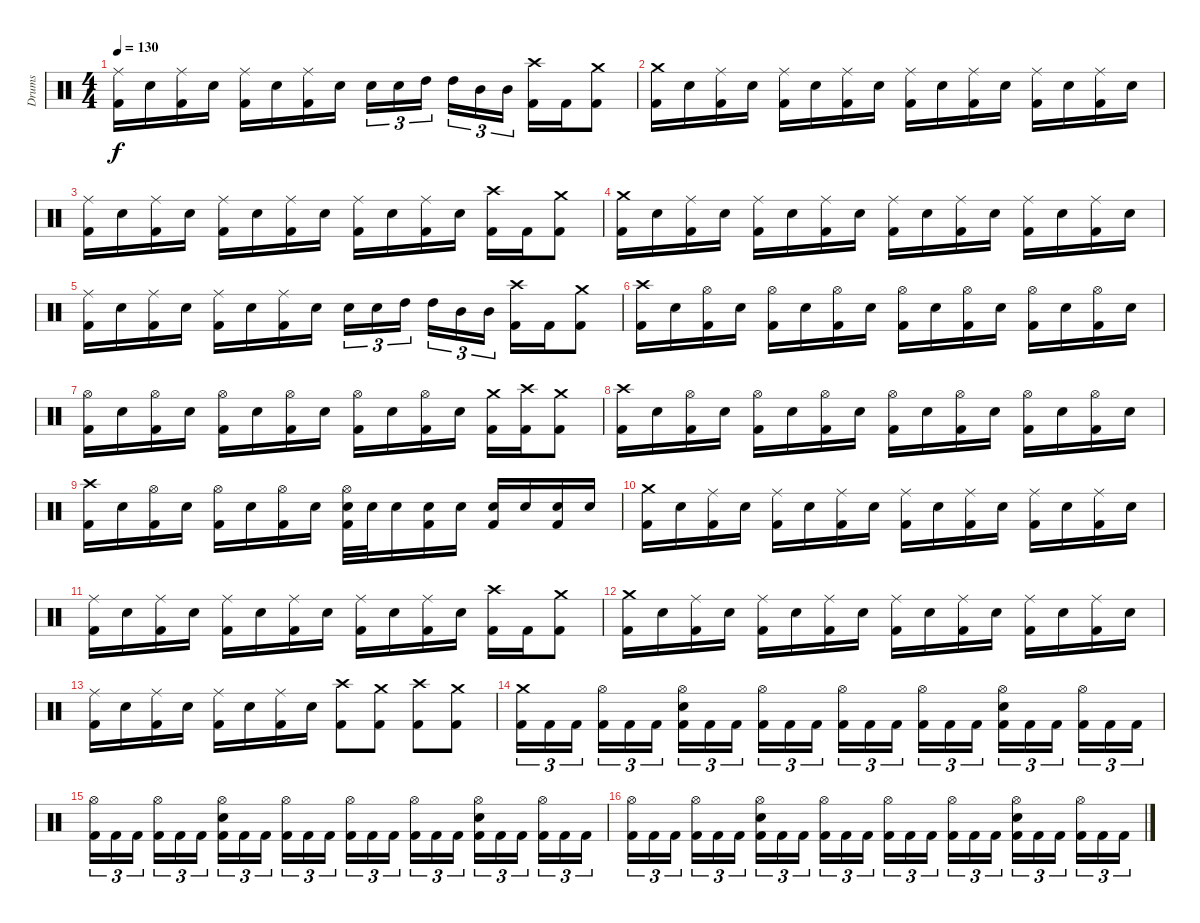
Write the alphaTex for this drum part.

\track ("Drums" "Drums") {instrument percussion}
\staff {score}
\articulation defaults
\ts (4 4)
\tempo 130
\clef neutral
\ks c
("Kick (hit) 2" "Ride (middle)").16{dy f} "Electric Snare (hit)".16 ("Kick (hit) 2" "Ride (middle)").16 "Electric Snare (hit)".16 ("Kick (hit) 2" "Ride (middle)").16 "Electric Snare (hit)".16 ("Kick (hit) 2" "Ride (middle)").16 "Electric Snare (hit)".16 "Electric Snare (hit)".16{tu (3 2)} "Electric Snare (hit)".16{tu (3 2)} "High Tom (hit)".16{tu (3 2)} "High Tom (hit)".16{tu (3 2)} "Mid Tom (hit)".16{tu (3 2)} "Mid Tom (hit)".16{tu (3 2)} ("Kick (hit) 2" "Crash high (hit)").16 "Kick (hit) 2".16 ("Kick (hit) 2" "Crash medium (hit)").8 |
("Kick (hit) 2" "Crash medium (hit)").16 "Electric Snare (hit)".16 ("Kick (hit) 2" "Ride (middle)").16 "Electric Snare (hit)".16 ("Kick (hit) 2" "Ride (middle)").16 "Electric Snare (hit)".16 ("Kick (hit) 2" "Ride (middle)").16 "Electric Snare (hit)".16 ("Kick (hit) 2" "Ride (middle)").16 "Electric Snare (hit)".16 ("Kick (hit) 2" "Ride (middle)").16 "Electric Snare (hit)".16 ("Kick (hit) 2" "Ride (middle)").16 "Electric Snare (hit)".16 ("Kick (hit) 2" "Ride (middle)").16 "Electric Snare (hit)".16 |
("Kick (hit) 2" "Ride (middle)").16 "Electric Snare (hit)".16 ("Kick (hit) 2" "Ride (middle)").16 "Electric Snare (hit)".16 ("Kick (hit) 2" "Ride (middle)").16 "Electric Snare (hit)".16 ("Kick (hit) 2" "Ride (middle)").16 "Electric Snare (hit)".16 ("Kick (hit) 2" "Ride (middle)").16 "Electric Snare (hit)".16 ("Kick (hit) 2" "Ride (middle)").16 "Electric Snare (hit)".16 ("Kick (hit) 2" "Crash high (hit)").16 "Kick (hit) 2".16 ("Kick (hit) 2" "Crash medium (hit)").8 |
("Kick (hit) 2" "Crash medium (hit)").16 "Electric Snare (hit)".16 ("Kick (hit) 2" "Ride (middle)").16 "Electric Snare (hit)".16 ("Kick (hit) 2" "Ride (middle)").16 "Electric Snare (hit)".16 ("Kick (hit) 2" "Ride (middle)").16 "Electric Snare (hit)".16 ("Kick (hit) 2" "Ride (middle)").16 "Electric Snare (hit)".16 ("Kick (hit) 2" "Ride (middle)").16 "Electric Snare (hit)".16 ("Kick (hit) 2" "Ride (middle)").16 "Electric Snare (hit)".16 ("Kick (hit) 2" "Ride (middle)").16 "Electric Snare (hit)".16 |
("Kick (hit) 2" "Ride (middle)").16 "Electric Snare (hit)".16 ("Kick (hit) 2" "Ride (middle)").16 "Electric Snare (hit)".16 ("Kick (hit) 2" "Ride (middle)").16 "Electric Snare (hit)".16 ("Kick (hit) 2" "Ride (middle)").16 "Electric Snare (hit)".16 "Electric Snare (hit)".16{tu (3 2)} "Electric Snare (hit)".16{tu (3 2)} "High Tom (hit)".16{tu (3 2)} "High Tom (hit)".16{tu (3 2)} "Mid Tom (hit)".16{tu (3 2)} "Mid Tom (hit)".16{tu (3 2)} ("Kick (hit) 2" "Crash high (hit)").16 "Kick (hit) 2".16 ("Kick (hit) 2" "Crash medium (hit)").8 |
("Kick (hit) 2" "Crash high (hit)").16 "Electric Snare (hit)".16 ("Kick (hit) 2" "Hi-Hat (open)").16 "Electric Snare (hit)".16 ("Kick (hit) 2" "Hi-Hat (open)").16 "Electric Snare (hit)".16 ("Kick (hit) 2" "Hi-Hat (open)").16 "Electric Snare (hit)".16 ("Kick (hit) 2" "Hi-Hat (open)").16 "Electric Snare (hit)".16 ("Kick (hit) 2" "Hi-Hat (open)").16 "Electric Snare (hit)".16 ("Kick (hit) 2" "Hi-Hat (open)").16 "Electric Snare (hit)".16 ("Kick (hit) 2" "Hi-Hat (open)").16 "Electric Snare (hit)".16 |
("Kick (hit) 2" "Hi-Hat (open)").16 "Electric Snare (hit)".16 ("Kick (hit) 2" "Hi-Hat (open)").16 "Electric Snare (hit)".16 ("Kick (hit) 2" "Hi-Hat (open)").16 "Electric Snare (hit)".16 ("Kick (hit) 2" "Hi-Hat (open)").16 "Electric Snare (hit)".16 ("Kick (hit) 2" "Hi-Hat (open)").16 "Electric Snare (hit)".16 ("Kick (hit) 2" "Hi-Hat (open)").16 "Electric Snare (hit)".16 ("Kick (hit) 2" "Crash medium (hit)").16 ("Kick (hit) 2" "Crash high (hit)").16 ("Kick (hit) 2" "Crash medium (hit)").8 |
("Kick (hit) 2" "Crash high (hit)").16 "Electric Snare (hit)".16 ("Kick (hit) 2" "Hi-Hat (open)").16 "Electric Snare (hit)".16 ("Kick (hit) 2" "Hi-Hat (open)").16 "Electric Snare (hit)".16 ("Kick (hit) 2" "Hi-Hat (open)").16 "Electric Snare (hit)".16 ("Kick (hit) 2" "Hi-Hat (open)").16 "Electric Snare (hit)".16 ("Kick (hit) 2" "Hi-Hat (open)").16 "Electric Snare (hit)".16 ("Kick (hit) 2" "Hi-Hat (open)").16 "Electric Snare (hit)".16 ("Kick (hit) 2" "Hi-Hat (open)").16 "Electric Snare (hit)".16 |
("Kick (hit) 2" "Crash high (hit)").16 "Electric Snare (hit)".16 ("Kick (hit) 2" "Hi-Hat (open)").16 "Electric Snare (hit)".16 ("Kick (hit) 2" "Hi-Hat (open)").16 "Electric Snare (hit)".16 ("Kick (hit) 2" "Hi-Hat (open)").16 "Electric Snare (hit)".16 ("Kick (hit) 2" "Electric Snare (hit)" "Hi-Hat (open)").32 "Electric Snare (hit)".32 "Electric Snare (hit)".16 ("Kick (hit) 2" "Electric Snare (hit)").16 "Electric Snare (hit)".16 ("Kick (hit) 2" "Electric Snare (hit)").16 "Electric Snare (hit)".16 ("Kick (hit) 2" "Electric Snare (hit)").16 "Electric Snare (hit)".16 |
("Kick (hit) 2" "Crash medium (hit)").16 "Electric Snare (hit)".16 ("Kick (hit) 2" "Ride (middle)").16 "Electric Snare (hit)".16 ("Kick (hit) 2" "Ride (middle)").16 "Electric Snare (hit)".16 ("Kick (hit) 2" "Ride (middle)").16 "Electric Snare (hit)".16 ("Kick (hit) 2" "Ride (middle)").16 "Electric Snare (hit)".16 ("Kick (hit) 2" "Ride (middle)").16 "Electric Snare (hit)".16 ("Kick (hit) 2" "Ride (middle)").16 "Electric Snare (hit)".16 ("Kick (hit) 2" "Ride (middle)").16 "Electric Snare (hit)".16 |
("Kick (hit) 2" "Ride (middle)").16 "Electric Snare (hit)".16 ("Kick (hit) 2" "Ride (middle)").16 "Electric Snare (hit)".16 ("Kick (hit) 2" "Ride (middle)").16 "Electric Snare (hit)".16 ("Kick (hit) 2" "Ride (middle)").16 "Electric Snare (hit)".16 ("Kick (hit) 2" "Ride (middle)").16 "Electric Snare (hit)".16 ("Kick (hit) 2" "Ride (middle)").16 "Electric Snare (hit)".16 ("Kick (hit) 2" "Crash high (hit)").16 "Kick (hit) 2".16 ("Kick (hit) 2" "Crash medium (hit)").8 |
("Kick (hit) 2" "Crash medium (hit)").16 "Electric Snare (hit)".16 ("Kick (hit) 2" "Ride (middle)").16 "Electric Snare (hit)".16 ("Kick (hit) 2" "Ride (middle)").16 "Electric Snare (hit)".16 ("Kick (hit) 2" "Ride (middle)").16 "Electric Snare (hit)".16 ("Kick (hit) 2" "Ride (middle)").16 "Electric Snare (hit)".16 ("Kick (hit) 2" "Ride (middle)").16 "Electric Snare (hit)".16 ("Kick (hit) 2" "Ride (middle)").16 "Electric Snare (hit)".16 ("Kick (hit) 2" "Ride (middle)").16 "Electric Snare (hit)".16 |
("Kick (hit) 2" "Ride (middle)").16 "Electric Snare (hit)".16 ("Kick (hit) 2" "Ride (middle)").16 "Electric Snare (hit)".16 ("Kick (hit) 2" "Ride (middle)").16 "Electric Snare (hit)".16 ("Kick (hit) 2" "Ride (middle)").16 "Electric Snare (hit)".16 ("Kick (hit) 2" "Crash high (hit)").8 ("Kick (hit) 2" "Crash medium (hit)").8 ("Kick (hit) 2" "Crash high (hit)").8 ("Kick (hit) 2" "Crash medium (hit)").8 |
("Kick (hit) 2" "Crash medium (hit)").16{tu (3 2)} "Kick (hit) 2".16{tu (3 2)} "Kick (hit) 2".16{tu (3 2)} ("Kick (hit) 2" "Hi-Hat (open)").16{tu (3 2)} "Kick (hit) 2".16{tu (3 2)} "Kick (hit) 2".16{tu (3 2)} ("Kick (hit) 2" "Electric Snare (hit)" "Hi-Hat (open)").16{tu (3 2)} "Kick (hit) 2".16{tu (3 2)} "Kick (hit) 2".16{tu (3 2)} ("Kick (hit) 2" "Hi-Hat (open)").16{tu (3 2)} "Kick (hit) 2".16{tu (3 2)} "Kick (hit) 2".16{tu (3 2)} ("Kick (hit) 2" "Hi-Hat (open)").16{tu (3 2)} "Kick (hit) 2".16{tu (3 2)} "Kick (hit) 2".16{tu (3 2)} ("Kick (hit) 2" "Hi-Hat (open)").16{tu (3 2)} "Kick (hit) 2".16{tu (3 2)} "Kick (hit) 2".16{tu (3 2)} ("Kick (hit) 2" "Electric Snare (hit)" "Hi-Hat (open)").16{tu (3 2)} "Kick (hit) 2".16{tu (3 2)} "Kick (hit) 2".16{tu (3 2)} ("Kick (hit) 2" "Hi-Hat (open)").16{tu (3 2)} "Kick (hit) 2".16{tu (3 2)} "Kick (hit) 2".16{tu (3 2)} |
("Kick (hit) 2" "Hi-Hat (open)").16{tu (3 2)} "Kick (hit) 2".16{tu (3 2)} "Kick (hit) 2".16{tu (3 2)} ("Kick (hit) 2" "Hi-Hat (open)").16{tu (3 2)} "Kick (hit) 2".16{tu (3 2)} "Kick (hit) 2".16{tu (3 2)} ("Kick (hit) 2" "Electric Snare (hit)" "Hi-Hat (open)").16{tu (3 2)} "Kick (hit) 2".16{tu (3 2)} "Kick (hit) 2".16{tu (3 2)} ("Kick (hit) 2" "Hi-Hat (open)").16{tu (3 2)} "Kick (hit) 2".16{tu (3 2)} "Kick (hit) 2".16{tu (3 2)} ("Kick (hit) 2" "Hi-Hat (open)").16{tu (3 2)} "Kick (hit) 2".16{tu (3 2)} "Kick (hit) 2".16{tu (3 2)} ("Kick (hit) 2" "Hi-Hat (open)").16{tu (3 2)} "Kick (hit) 2".16{tu (3 2)} "Kick (hit) 2".16{tu (3 2)} ("Kick (hit) 2" "Electric Snare (hit)" "Hi-Hat (open)").16{tu (3 2)} "Kick (hit) 2".16{tu (3 2)} "Kick (hit) 2".16{tu (3 2)} ("Kick (hit) 2" "Hi-Hat (open)").16{tu (3 2)} "Kick (hit) 2".16{tu (3 2)} "Kick (hit) 2".16{tu (3 2)} |
("Kick (hit) 2" "Hi-Hat (open)").16{tu (3 2)} "Kick (hit) 2".16{tu (3 2)} "Kick (hit) 2".16{tu (3 2)} ("Kick (hit) 2" "Hi-Hat (open)").16{tu (3 2)} "Kick (hit) 2".16{tu (3 2)} "Kick (hit) 2".16{tu (3 2)} ("Kick (hit) 2" "Electric Snare (hit)" "Hi-Hat (open)").16{tu (3 2)} "Kick (hit) 2".16{tu (3 2)} "Kick (hit) 2".16{tu (3 2)} ("Kick (hit) 2" "Hi-Hat (open)").16{tu (3 2)} "Kick (hit) 2".16{tu (3 2)} "Kick (hit) 2".16{tu (3 2)} ("Kick (hit) 2" "Hi-Hat (open)").16{tu (3 2)} "Kick (hit) 2".16{tu (3 2)} "Kick (hit) 2".16{tu (3 2)} ("Kick (hit) 2" "Hi-Hat (open)").16{tu (3 2)} "Kick (hit) 2".16{tu (3 2)} "Kick (hit) 2".16{tu (3 2)} ("Kick (hit) 2" "Electric Snare (hit)" "Hi-Hat (open)").16{tu (3 2)} "Kick (hit) 2".16{tu (3 2)} "Kick (hit) 2".16{tu (3 2)} ("Kick (hit) 2" "Hi-Hat (open)").16{tu (3 2)} "Kick (hit) 2".16{tu (3 2)} "Kick (hit) 2".16{tu (3 2)}
